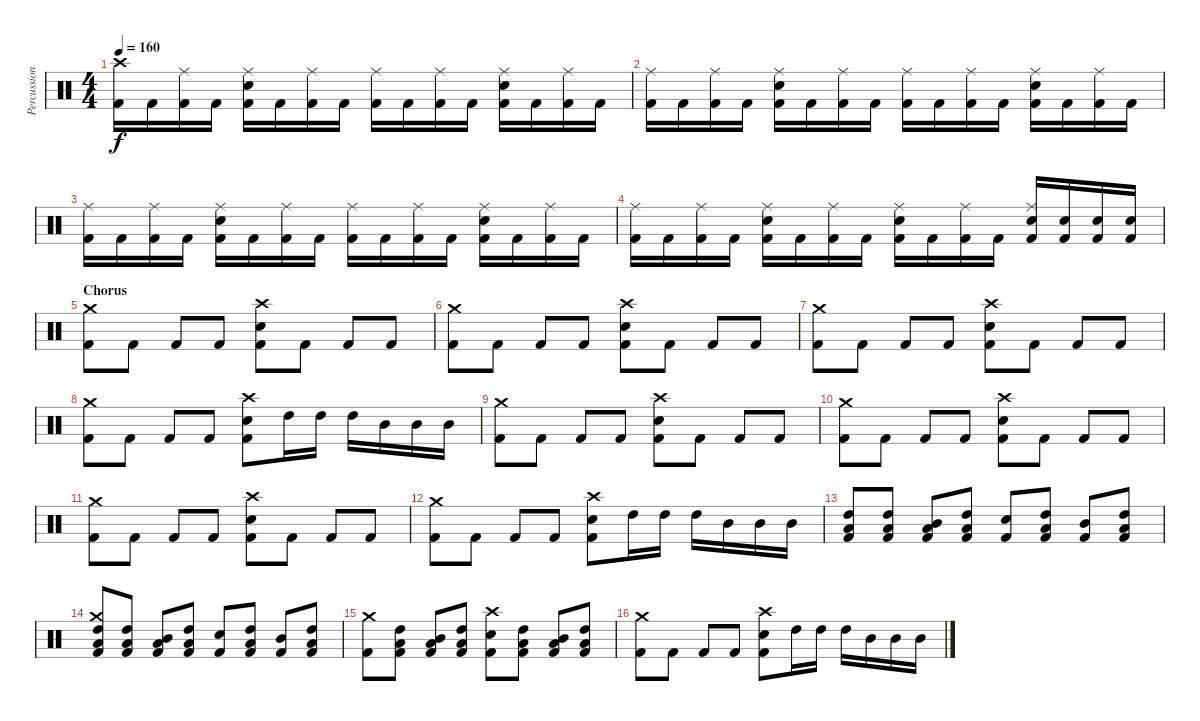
\track ("Percussions" "Percussion") {instrument percussion}
\staff {score}
\articulation defaults
\ts (4 4)
\tempo 160
\clef neutral
\ks c
("Crash high (hit)" "Kick (hit) 2").16{dy f} "Kick (hit) 2".16 ("Ride (middle)" "Kick (hit) 2").16 "Kick (hit) 2".16 ("Ride (middle)" "Electric Snare (hit)" "Kick (hit) 2").16 "Kick (hit) 2".16 ("Ride (middle)" "Kick (hit) 2").16 "Kick (hit) 2".16 ("Ride (middle)" "Kick (hit) 2").16 "Kick (hit) 2".16 ("Ride (middle)" "Kick (hit) 2").16 "Kick (hit) 2".16 ("Ride (middle)" "Electric Snare (hit)" "Kick (hit) 2").16 "Kick (hit) 2".16 ("Ride (middle)" "Kick (hit) 2").16 "Kick (hit) 2".16 |
("Ride (middle)" "Kick (hit) 2").16 "Kick (hit) 2".16 ("Ride (middle)" "Kick (hit) 2").16 "Kick (hit) 2".16 ("Ride (middle)" "Electric Snare (hit)" "Kick (hit) 2").16 "Kick (hit) 2".16 ("Ride (middle)" "Kick (hit) 2").16 "Kick (hit) 2".16 ("Ride (middle)" "Kick (hit) 2").16 "Kick (hit) 2".16 ("Ride (middle)" "Kick (hit) 2").16 "Kick (hit) 2".16 ("Ride (middle)" "Electric Snare (hit)" "Kick (hit) 2").16 "Kick (hit) 2".16 ("Ride (middle)" "Kick (hit) 2").16 "Kick (hit) 2".16 |
("Ride (middle)" "Kick (hit) 2").16 "Kick (hit) 2".16 ("Ride (middle)" "Kick (hit) 2").16 "Kick (hit) 2".16 ("Ride (middle)" "Electric Snare (hit)" "Kick (hit) 2").16 "Kick (hit) 2".16 ("Ride (middle)" "Kick (hit) 2").16 "Kick (hit) 2".16 ("Ride (middle)" "Kick (hit) 2").16 "Kick (hit) 2".16 ("Ride (middle)" "Kick (hit) 2").16 "Kick (hit) 2".16 ("Ride (middle)" "Electric Snare (hit)" "Kick (hit) 2").16 "Kick (hit) 2".16 ("Ride (middle)" "Kick (hit) 2").16 "Kick (hit) 2".16 |
("Ride (middle)" "Kick (hit) 2").16 "Kick (hit) 2".16 ("Ride (middle)" "Kick (hit) 2").16 "Kick (hit) 2".16 ("Ride (middle)" "Electric Snare (hit)" "Kick (hit) 2").16 "Kick (hit) 2".16 ("Ride (middle)" "Kick (hit) 2").16 "Kick (hit) 2".16 ("Ride (middle)" "Electric Snare (hit)" "Kick (hit) 2").16 "Kick (hit) 2".16 ("Ride (middle)" "Kick (hit) 2").16 "Kick (hit) 2".16 ("Ride (middle)" "Electric Snare (hit)" "Kick (hit) 2").16 ("Electric Snare (hit)" "Kick (hit) 2").16 ("Electric Snare (hit)" "Kick (hit) 2").16 ("Electric Snare (hit)" "Kick (hit) 2").16 |
\section ("" "Chorus")
("Crash medium (hit)" "Kick (hit) 2").8 "Kick (hit) 2".8 "Kick (hit) 2".8 "Kick (hit) 2".8 ("Crash high (hit)" "Electric Snare (hit)" "Kick (hit) 2").8 "Kick (hit) 2".8 "Kick (hit) 2".8 "Kick (hit) 2".8 |
("Crash medium (hit)" "Kick (hit) 2").8 "Kick (hit) 2".8 "Kick (hit) 2".8 "Kick (hit) 2".8 ("Crash high (hit)" "Electric Snare (hit)" "Kick (hit) 2").8 "Kick (hit) 2".8 "Kick (hit) 2".8 "Kick (hit) 2".8 |
("Crash medium (hit)" "Kick (hit) 2").8 "Kick (hit) 2".8 "Kick (hit) 2".8 "Kick (hit) 2".8 ("Crash high (hit)" "Electric Snare (hit)" "Kick (hit) 2").8 "Kick (hit) 2".8 "Kick (hit) 2".8 "Kick (hit) 2".8 |
("Crash medium (hit)" "Kick (hit) 2").8 "Kick (hit) 2".8 "Kick (hit) 2".8 "Kick (hit) 2".8 ("Crash high (hit)" "Electric Snare (hit)" "Kick (hit) 2").8 "High Tom (hit)".16 "High Tom (hit)".16 "High Tom (hit)".16 "Mid Tom (hit)".16 "Mid Tom (hit)".16 "Mid Tom (hit)".16 |
("Crash medium (hit)" "Kick (hit) 2").8 "Kick (hit) 2".8 "Kick (hit) 2".8 "Kick (hit) 2".8 ("Crash high (hit)" "Electric Snare (hit)" "Kick (hit) 2").8 "Kick (hit) 2".8 "Kick (hit) 2".8 "Kick (hit) 2".8 |
("Crash medium (hit)" "Kick (hit) 2").8 "Kick (hit) 2".8 "Kick (hit) 2".8 "Kick (hit) 2".8 ("Crash high (hit)" "Electric Snare (hit)" "Kick (hit) 2").8 "Kick (hit) 2".8 "Kick (hit) 2".8 "Kick (hit) 2".8 |
("Crash medium (hit)" "Kick (hit) 2").8 "Kick (hit) 2".8 "Kick (hit) 2".8 "Kick (hit) 2".8 ("Crash high (hit)" "Electric Snare (hit)" "Kick (hit) 2").8 "Kick (hit) 2".8 "Kick (hit) 2".8 "Kick (hit) 2".8 |
("Crash medium (hit)" "Kick (hit) 2").8 "Kick (hit) 2".8 "Kick (hit) 2".8 "Kick (hit) 2".8 ("Crash high (hit)" "Electric Snare (hit)" "Kick (hit) 2").8 "High Tom (hit)".16 "High Tom (hit)".16 "High Tom (hit)".16 "Mid Tom (hit)".16 "Mid Tom (hit)".16 "Mid Tom (hit)".16 |
("High Tom (hit)" "Low Tom (hit)" "Kick (hit) 2").8 ("High Tom (hit)" "Low Tom (hit)" "Kick (hit) 2").8 ("Mid Tom (hit)" "Low Tom (hit)" "Kick (hit) 2").8 ("High Tom (hit)" "Low Tom (hit)" "Kick (hit) 2").8 ("Electric Snare (hit)" "Kick (hit) 2").8 ("High Tom (hit)" "Low Tom (hit)" "Kick (hit) 2").8 ("Mid Tom (hit)" "Kick (hit) 2").8 ("High Tom (hit)" "Low Tom (hit)" "Kick (hit) 2").8 |
("Crash medium (hit)" "High Tom (hit)" "Low Tom (hit)" "Kick (hit) 2").8 ("High Tom (hit)" "Low Tom (hit)" "Kick (hit) 2").8 ("Mid Tom (hit)" "Low Tom (hit)" "Kick (hit) 2").8 ("High Tom (hit)" "Low Tom (hit)" "Kick (hit) 2").8 ("Electric Snare (hit)" "Kick (hit) 2").8 ("High Tom (hit)" "Low Tom (hit)" "Kick (hit) 2").8 ("Mid Tom (hit)" "Kick (hit) 2").8 ("High Tom (hit)" "Low Tom (hit)" "Kick (hit) 2").8 |
("Crash medium (hit)" "Kick (hit) 2").8 ("High Tom (hit)" "Low Tom (hit)" "Kick (hit) 2").8 ("Mid Tom (hit)" "Low Tom (hit)" "Kick (hit) 2").8 ("High Tom (hit)" "Low Tom (hit)" "Kick (hit) 2").8 ("Crash high (hit)" "Electric Snare (hit)" "Kick (hit) 2").8 ("High Tom (hit)" "Low Tom (hit)" "Kick (hit) 2").8 ("Mid Tom (hit)" "Low Tom (hit)" "Kick (hit) 2").8 ("High Tom (hit)" "Low Tom (hit)" "Kick (hit) 2").8 |
("Crash medium (hit)" "Kick (hit) 2").8 "Kick (hit) 2".8 "Kick (hit) 2".8 "Kick (hit) 2".8 ("Crash high (hit)" "Electric Snare (hit)" "Kick (hit) 2").8 "High Tom (hit)".16 "High Tom (hit)".16 "High Tom (hit)".16 "Mid Tom (hit)".16 "Mid Tom (hit)".16 "Mid Tom (hit)".16
